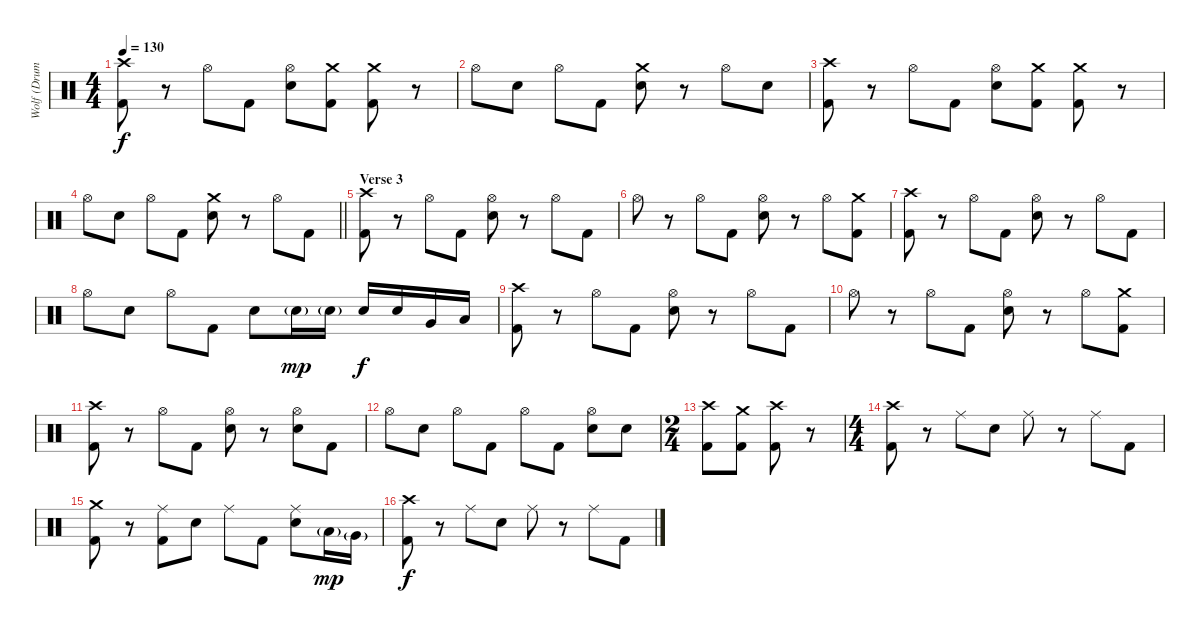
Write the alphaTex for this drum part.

\track ("Wolf (Drums)" "Wolf (Drum") {instrument percussion}
\staff {score}
\articulation defaults
\ts (4 4)
\tempo 130
\clef neutral
\ks c
("Crash high (hit)" "Kick (hit) 2").8{dy f} r.8 "Hi-Hat (open)".8 "Kick (hit) 2".8 ("Hi-Hat (open)" "Snare (hit) 2").8 ("Crash medium (hit)" "Kick (hit) 2").8 ("Crash medium (hit)" "Kick (hit) 2").8 r.8 |
"Hi-Hat (open)".8 "Snare (hit) 2".8 "Hi-Hat (open)".8 "Kick (hit) 2".8 ("Crash medium (hit)" "Snare (hit) 2").8 r.8 "Hi-Hat (open)".8 "Snare (hit) 2".8 |
("Crash high (hit)" "Kick (hit) 2").8 r.8 "Hi-Hat (open)".8 "Kick (hit) 2".8 ("Hi-Hat (open)" "Snare (hit) 2").8 ("Crash medium (hit)" "Kick (hit) 2").8 ("Crash medium (hit)" "Kick (hit) 2").8 r.8 |
\barLineRight lightlight "Hi-Hat (open)".8{beam merge} "Snare (hit) 2".8 "Hi-Hat (open)".8 "Kick (hit) 2".8
("Crash medium (hit)" "Snare (hit) 2").8 r.8 "Hi-Hat (open)".8 "Kick (hit) 2".8 |
\section ("" "Verse 3")
("Crash high (hit)" "Kick (hit) 2").8 r.8 "Hi-Hat (open)".8 "Kick (hit) 2".8 ("Hi-Hat (open)" "Snare (hit) 2").8 r.8 "Hi-Hat (open)".8 "Kick (hit) 2".8 |
"Hi-Hat (open)".8 r.8 "Hi-Hat (open)".8 "Kick (hit) 2".8 ("Hi-Hat (open)" "Snare (hit) 2").8 r.8 "Hi-Hat (open)".8 ("Crash medium (hit)" "Kick (hit) 2").8 |
("Crash high (hit)" "Kick (hit) 2").8 r.8 "Hi-Hat (open)".8 "Kick (hit) 2".8 ("Hi-Hat (open)" "Snare (hit) 2").8 r.8 "Hi-Hat (open)".8 "Kick (hit) 2".8 |
"Hi-Hat (open)".8{beam merge} "Snare (hit) 2".8 "Hi-Hat (open)".8 "Kick (hit) 2".8 "Snare (hit) 2".8 "Snare (hit) 2"{g}.16{dy mp} "Snare (hit) 2"{g}.16 "Snare (hit) 2".16{dy f} "Snare (hit) 2".16 "Very Low Tom (hit)".16 "Low Floor Tom (hit)".16 |
("Crash high (hit)" "Kick (hit) 2").8 r.8 "Hi-Hat (open)".8 "Kick (hit) 2".8 ("Hi-Hat (open)" "Snare (hit) 2").8 r.8 "Hi-Hat (open)".8 "Kick (hit) 2".8 |
"Hi-Hat (open)".8 r.8 "Hi-Hat (open)".8 "Kick (hit) 2".8 ("Hi-Hat (open)" "Snare (hit) 2").8 r.8 "Hi-Hat (open)".8 ("Crash medium (hit)" "Kick (hit) 2").8 |
("Crash high (hit)" "Kick (hit) 2").8 r.8 "Hi-Hat (open)".8 "Kick (hit) 2".8 ("Hi-Hat (open)" "Snare (hit) 2").8 r.8 ("Hi-Hat (open)" "Snare (hit) 2").8 "Kick (hit) 2".8 |
"Hi-Hat (open)".8 "Snare (hit) 2".8 "Hi-Hat (open)".8 "Kick (hit) 2".8 "Hi-Hat (open)".8 "Kick (hit) 2".8 ("Hi-Hat (open)" "Snare (hit) 2").8 "Snare (hit) 2".8 |
\ts (2 4)
("Crash high (hit)" "Kick (hit) 2").8 ("Crash medium (hit)" "Kick (hit) 2").8 ("Crash high (hit)" "Kick (hit) 2").8 r.8 |
\ts (4 4)
("Crash high (hit)" "Kick (hit) 2").8 r.8 "Ride (middle)".8 "Snare (hit) 2".8 "Ride (middle)".8 r.8 "Ride (middle)".8 "Kick (hit) 2".8 |
("Crash medium (hit)" "Kick (hit) 2").8 r.8 ("Ride (middle)" "Kick (hit) 2").8 "Snare (hit) 2".8 "Ride (middle)".8 "Kick (hit) 2".8 ("Ride (middle)" "Snare (hit) 2").8 "Low Tom (hit)"{g}.16{dy mp} "Very Low Tom (hit)"{g}.16 |
("Crash high (hit)" "Kick (hit) 2").8{dy f} r.8 "Ride (middle)".8 "Snare (hit) 2".8 "Ride (middle)".8 r.8 "Ride (middle)".8 "Kick (hit) 2".8
